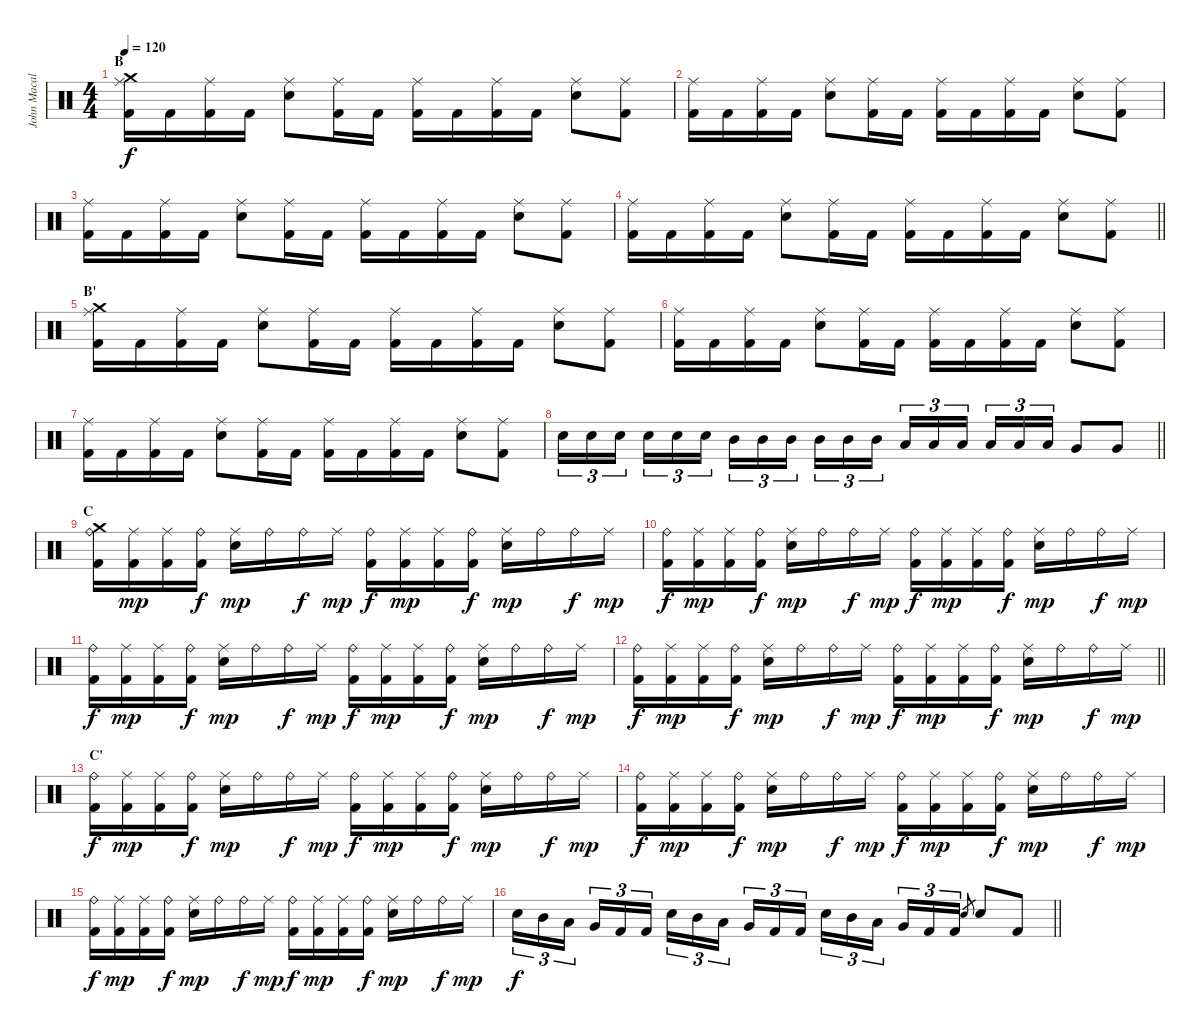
\track ("John Macaluso" "John Macal") {instrument percussion}
\staff {score}
\articulation defaults
\ts (4 4)
\section ("" "B")
\tempo 120
\clef neutral
\ks c
("Crash medium (hit)" "Ride (middle)" "Kick (hit) 2").16{dy f} "Kick (hit) 2".16 ("Ride (middle)" "Kick (hit) 2").16 "Kick (hit) 2".16 ("Ride (middle)" "Snare (hit) 2").8 ("Ride (middle)" "Kick (hit) 2").16 "Kick (hit) 2".16 ("Ride (middle)" "Kick (hit) 2").16 "Kick (hit) 2".16 ("Ride (middle)" "Kick (hit) 2").16 "Kick (hit) 2".16 ("Ride (middle)" "Snare (hit) 2").8 ("Ride (middle)" "Kick (hit) 2").8 |
("Ride (middle)" "Kick (hit) 2").16 "Kick (hit) 2".16 ("Ride (middle)" "Kick (hit) 2").16 "Kick (hit) 2".16 ("Ride (middle)" "Snare (hit) 2").8 ("Ride (middle)" "Kick (hit) 2").16 "Kick (hit) 2".16 ("Ride (middle)" "Kick (hit) 2").16 "Kick (hit) 2".16 ("Ride (middle)" "Kick (hit) 2").16 "Kick (hit) 2".16 ("Ride (middle)" "Snare (hit) 2").8 ("Ride (middle)" "Kick (hit) 2").8 |
("Ride (middle)" "Kick (hit) 2").16 "Kick (hit) 2".16 ("Ride (middle)" "Kick (hit) 2").16 "Kick (hit) 2".16 ("Ride (middle)" "Snare (hit) 2").8 ("Ride (middle)" "Kick (hit) 2").16 "Kick (hit) 2".16 ("Ride (middle)" "Kick (hit) 2").16 "Kick (hit) 2".16 ("Ride (middle)" "Kick (hit) 2").16 "Kick (hit) 2".16 ("Ride (middle)" "Snare (hit) 2").8 ("Ride (middle)" "Kick (hit) 2").8 |
\barLineRight lightlight
("Ride (middle)" "Kick (hit) 2").16 "Kick (hit) 2".16 ("Ride (middle)" "Kick (hit) 2").16 "Kick (hit) 2".16 ("Ride (middle)" "Snare (hit) 2").8 ("Ride (middle)" "Kick (hit) 2").16 "Kick (hit) 2".16 ("Ride (middle)" "Kick (hit) 2").16 "Kick (hit) 2".16 ("Ride (middle)" "Kick (hit) 2").16 "Kick (hit) 2".16 ("Ride (middle)" "Snare (hit) 2").8 ("Ride (middle)" "Kick (hit) 2").8 |
\section ("" "B'")
("Crash medium (hit)" "Ride (middle)" "Kick (hit) 2").16 "Kick (hit) 2".16 ("Ride (middle)" "Kick (hit) 2").16 "Kick (hit) 2".16 ("Ride (middle)" "Snare (hit) 2").8 ("Ride (middle)" "Kick (hit) 2").16 "Kick (hit) 2".16 ("Ride (middle)" "Kick (hit) 2").16 "Kick (hit) 2".16 ("Ride (middle)" "Kick (hit) 2").16 "Kick (hit) 2".16 ("Ride (middle)" "Snare (hit) 2").8 ("Ride (middle)" "Kick (hit) 2").8 |
("Ride (middle)" "Kick (hit) 2").16 "Kick (hit) 2".16 ("Ride (middle)" "Kick (hit) 2").16 "Kick (hit) 2".16 ("Ride (middle)" "Snare (hit) 2").8 ("Ride (middle)" "Kick (hit) 2").16 "Kick (hit) 2".16 ("Ride (middle)" "Kick (hit) 2").16 "Kick (hit) 2".16 ("Ride (middle)" "Kick (hit) 2").16 "Kick (hit) 2".16 ("Ride (middle)" "Snare (hit) 2").8 ("Ride (middle)" "Kick (hit) 2").8 |
("Ride (middle)" "Kick (hit) 2").16 "Kick (hit) 2".16 ("Ride (middle)" "Kick (hit) 2").16 "Kick (hit) 2".16 ("Ride (middle)" "Snare (hit) 2").8 ("Ride (middle)" "Kick (hit) 2").16 "Kick (hit) 2".16 ("Ride (middle)" "Kick (hit) 2").16 "Kick (hit) 2".16 ("Ride (middle)" "Kick (hit) 2").16 "Kick (hit) 2".16 ("Ride (middle)" "Snare (hit) 2").8 ("Ride (middle)" "Kick (hit) 2").8 |
\barLineRight lightlight "Snare (hit) 2".16{tu (3 2)} "Snare (hit) 2".16{tu (3 2)} "Snare (hit) 2".16{tu (3 2) beam splitsecondary} "Snare (hit) 2".16{tu (3 2)} "Snare (hit) 2".16{tu (3 2)} "Snare (hit) 2".16{tu (3 2)} "Mid Tom (hit)".16{tu (3 2)} "Mid Tom (hit)".16{tu (3 2)} "Mid Tom (hit)".16{tu (3 2) beam splitsecondary} "Mid Tom (hit)".16{tu (3 2)} "Mid Tom (hit)".16{tu (3 2)} "Mid Tom (hit)".16{tu (3 2)} "Low Tom (hit)".16{tu (3 2)} "Low Tom (hit)".16{tu (3 2)} "Low Tom (hit)".16{tu (3 2) beam splitsecondary} "Low Tom (hit)".16{tu (3 2)} "Low Tom (hit)".16{tu (3 2)} "Low Tom (hit)".16{tu (3 2)} "Very Low Tom (hit)".8 "Very Low Tom (hit)".8
|
\section ("" "C")
("Crash medium (hit)" "Ride (bell)" "Kick (hit) 2").16 ("Ride (middle)" "Kick (hit) 2").16{dy mp} ("Ride (middle)" "Kick (hit) 2").16 ("Ride (bell)" "Kick (hit) 2").16{dy f} ("Ride (middle)" "Snare (hit) 2").16{dy mp} "Ride (bell)".16 "Ride (bell)".16{dy f} "Ride (middle)".16{dy mp} ("Ride (bell)" "Kick (hit) 2").16{dy f} ("Ride (middle)" "Kick (hit) 2").16{dy mp} ("Ride (middle)" "Kick (hit) 2").16 ("Ride (bell)" "Kick (hit) 2").16{dy f} ("Ride (middle)" "Snare (hit) 2").16{dy mp} "Ride (bell)".16 "Ride (bell)".16{dy f} "Ride (middle)".16{dy mp} |
("Ride (bell)" "Kick (hit) 2").16{dy f} ("Ride (middle)" "Kick (hit) 2").16{dy mp} ("Ride (middle)" "Kick (hit) 2").16 ("Ride (bell)" "Kick (hit) 2").16{dy f} ("Ride (middle)" "Snare (hit) 2").16{dy mp} "Ride (bell)".16 "Ride (bell)".16{dy f} "Ride (middle)".16{dy mp} ("Ride (bell)" "Kick (hit) 2").16{dy f} ("Ride (middle)" "Kick (hit) 2").16{dy mp} ("Ride (middle)" "Kick (hit) 2").16 ("Ride (bell)" "Kick (hit) 2").16{dy f} ("Ride (middle)" "Snare (hit) 2").16{dy mp} "Ride (bell)".16 "Ride (bell)".16{dy f} "Ride (middle)".16{dy mp} |
("Ride (bell)" "Kick (hit) 2").16{dy f} ("Ride (middle)" "Kick (hit) 2").16{dy mp} ("Ride (middle)" "Kick (hit) 2").16 ("Ride (bell)" "Kick (hit) 2").16{dy f} ("Ride (middle)" "Snare (hit) 2").16{dy mp} "Ride (bell)".16 "Ride (bell)".16{dy f} "Ride (middle)".16{dy mp} ("Ride (bell)" "Kick (hit) 2").16{dy f} ("Ride (middle)" "Kick (hit) 2").16{dy mp} ("Ride (middle)" "Kick (hit) 2").16 ("Ride (bell)" "Kick (hit) 2").16{dy f} ("Ride (middle)" "Snare (hit) 2").16{dy mp} "Ride (bell)".16 "Ride (bell)".16{dy f} "Ride (middle)".16{dy mp} |
\barLineRight lightlight
("Ride (bell)" "Kick (hit) 2").16{dy f} ("Ride (middle)" "Kick (hit) 2").16{dy mp} ("Ride (middle)" "Kick (hit) 2").16 ("Ride (bell)" "Kick (hit) 2").16{dy f} ("Ride (middle)" "Snare (hit) 2").16{dy mp} "Ride (bell)".16 "Ride (bell)".16{dy f} "Ride (middle)".16{dy mp} ("Ride (bell)" "Kick (hit) 2").16{dy f} ("Ride (middle)" "Kick (hit) 2").16{dy mp} ("Ride (middle)" "Kick (hit) 2").16 ("Ride (bell)" "Kick (hit) 2").16{dy f} ("Ride (middle)" "Snare (hit) 2").16{dy mp} "Ride (bell)".16 "Ride (bell)".16{dy f} "Ride (middle)".16{dy mp} |
\section ("" "C'")
("Ride (bell)" "Kick (hit) 2").16{dy f} ("Ride (middle)" "Kick (hit) 2").16{dy mp} ("Ride (middle)" "Kick (hit) 2").16 ("Ride (bell)" "Kick (hit) 2").16{dy f} ("Ride (middle)" "Snare (hit) 2").16{dy mp} "Ride (bell)".16 "Ride (bell)".16{dy f} "Ride (middle)".16{dy mp} ("Ride (bell)" "Kick (hit) 2").16{dy f} ("Ride (middle)" "Kick (hit) 2").16{dy mp} ("Ride (middle)" "Kick (hit) 2").16 ("Ride (bell)" "Kick (hit) 2").16{dy f} ("Ride (middle)" "Snare (hit) 2").16{dy mp} "Ride (bell)".16 "Ride (bell)".16{dy f} "Ride (middle)".16{dy mp} |
("Ride (bell)" "Kick (hit) 2").16{dy f} ("Ride (middle)" "Kick (hit) 2").16{dy mp} ("Ride (middle)" "Kick (hit) 2").16 ("Ride (bell)" "Kick (hit) 2").16{dy f} ("Ride (middle)" "Snare (hit) 2").16{dy mp} "Ride (bell)".16 "Ride (bell)".16{dy f} "Ride (middle)".16{dy mp} ("Ride (bell)" "Kick (hit) 2").16{dy f} ("Ride (middle)" "Kick (hit) 2").16{dy mp} ("Ride (middle)" "Kick (hit) 2").16 ("Ride (bell)" "Kick (hit) 2").16{dy f} ("Ride (middle)" "Snare (hit) 2").16{dy mp} "Ride (bell)".16 "Ride (bell)".16{dy f} "Ride (middle)".16{dy mp} |
("Ride (bell)" "Kick (hit) 2").16{dy f} ("Ride (middle)" "Kick (hit) 2").16{dy mp} ("Ride (middle)" "Kick (hit) 2").16 ("Ride (bell)" "Kick (hit) 2").16{dy f} ("Ride (middle)" "Snare (hit) 2").16{dy mp} "Ride (bell)".16 "Ride (bell)".16{dy f} "Ride (middle)".16{dy mp} ("Ride (bell)" "Kick (hit) 2").16{dy f} ("Ride (middle)" "Kick (hit) 2").16{dy mp} ("Ride (middle)" "Kick (hit) 2").16 ("Ride (bell)" "Kick (hit) 2").16{dy f} ("Ride (middle)" "Snare (hit) 2").16{dy mp} "Ride (bell)".16 "Ride (bell)".16{dy f} "Ride (middle)".16{dy mp} |
\barLineRight lightlight "Snare (hit) 2".16{tu (3 2) dy f} "Mid Tom (hit)".16{tu (3 2)} "Low Tom (hit)".16{tu (3 2) beam splitsecondary} "Very Low Tom (hit)".16{tu (3 2)} "Kick (hit) 2".16{tu (3 2)} "Kick (hit) 2".16{tu (3 2)} "Snare (hit) 2".16{tu (3 2)} "Mid Tom (hit)".16{tu (3 2)} "Low Tom (hit)".16{tu (3 2) beam splitsecondary} "Very Low Tom (hit)".16{tu (3 2)} "Kick (hit) 2".16{tu (3 2)} "Kick (hit) 2".16{tu (3 2)} "Snare (hit) 2".16{tu (3 2)} "Mid Tom (hit)".16{tu (3 2)} "Low Tom (hit)".16{tu (3 2) beam splitsecondary} "Very Low Tom (hit)".16{tu (3 2)} "Kick (hit) 2".16{tu (3 2)} "Kick (hit) 2".16{tu (3 2)} "Snare (hit) 2".8{gr} "Snare (hit) 2".8 "Kick (hit) 2".8
